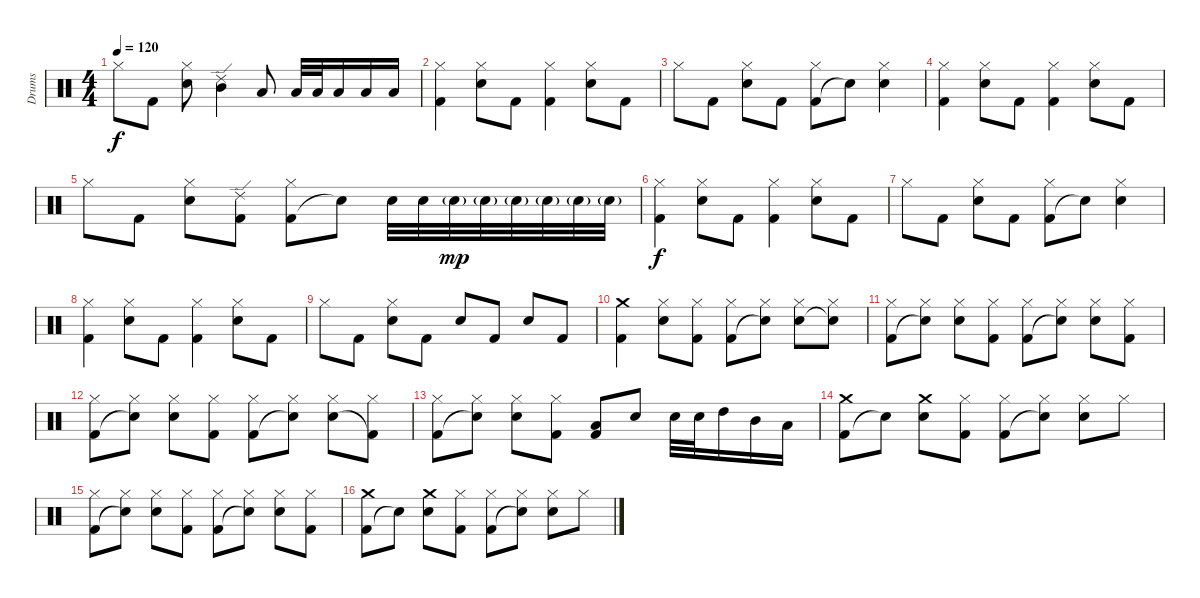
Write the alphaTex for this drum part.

\track ("Drums" "Drums") {instrument percussion}
\staff {score}
\articulation defaults
\ts (4 4)
\tempo 120
\clef neutral
\ks c "Hi-Hat (closed)".8{dy f} "Kick (hit) 2".8
("Snare (hit) 2" "Hi-Hat (closed)").8 ("Mid Tom (hit)" "Ride (edge) 2").4 "Low Tom (hit)".8 "Low Tom (hit)".32 "Low Tom (hit)".32 "Low Tom (hit)".16 "Low Floor Tom (hit)".16 "Low Floor Tom (hit)".16 |
("Kick (hit) 2" "Hi-Hat (closed)").4 ("Snare (hit) 2" "Hi-Hat (closed)").8 "Kick (hit) 2".8 ("Kick (hit) 2" "Hi-Hat (closed)").4 ("Snare (hit) 2" "Hi-Hat (closed)").8 "Kick (hit) 2".8 |
"Hi-Hat (closed)".8 "Kick (hit) 2".8 ("Snare (hit) 2" "Hi-Hat (closed)").8 "Kick (hit) 2".8 ("Kick (hit) 2" "Hi-Hat (closed)").8 "Snare (hit)"{t}.8 ("Snare (hit) 2" "Hi-Hat (closed)").4 |
("Kick (hit) 2" "Hi-Hat (closed)").4 ("Snare (hit) 2" "Hi-Hat (closed)").8 "Kick (hit) 2".8 ("Kick (hit) 2" "Hi-Hat (closed)").4 ("Snare (hit) 2" "Hi-Hat (closed)").8 "Kick (hit) 2".8 |
"Hi-Hat (closed)".8 "Kick (hit) 2".8 ("Snare (hit) 2" "Hi-Hat (closed)").8 ("Kick (hit) 2" "Ride (edge) 2").8 ("Kick (hit) 2" "Hi-Hat (closed)").8 "Snare (hit)"{t}.8 "Snare (hit) 2".32 "Snare (hit) 2".32 "Snare (hit) 2"{g}.32{dy mp} "Snare (hit) 2"{g}.32 "Snare (hit) 2"{g}.32 "Snare (hit) 2"{g}.32 "Snare (hit) 2"{g}.32 "Snare (hit) 2"{g}.32 |
("Kick (hit) 2" "Hi-Hat (closed)").4{dy f} ("Snare (hit) 2" "Hi-Hat (closed)").8 "Kick (hit) 2".8 ("Kick (hit) 2" "Hi-Hat (closed)").4 ("Snare (hit) 2" "Hi-Hat (closed)").8 "Kick (hit) 2".8 |
"Hi-Hat (closed)".8 "Kick (hit) 2".8 ("Snare (hit) 2" "Hi-Hat (closed)").8 "Kick (hit) 2".8 ("Kick (hit) 2" "Hi-Hat (closed)").8 "Snare (hit)"{t}.8 ("Snare (hit) 2" "Hi-Hat (closed)").4 |
("Kick (hit) 2" "Hi-Hat (closed)").4 ("Snare (hit) 2" "Hi-Hat (closed)").8 "Kick (hit) 2".8 ("Kick (hit) 2" "Hi-Hat (closed)").4 ("Snare (hit) 2" "Hi-Hat (closed)").8 "Kick (hit) 2".8 |
"Hi-Hat (closed)".8 "Kick (hit) 2".8 ("Snare (hit) 2" "Hi-Hat (closed)").8 "Kick (hit) 2".8 "Snare (hit) 2".8 "Kick (hit) 2".8 "Snare (hit) 2".8 "Kick (hit) 2".8 |
("Kick (hit) 2" "Crash medium (hit)").4 ("Snare (hit) 2" "Hi-Hat (closed)").8 ("Kick (hit) 2" "Hi-Hat (closed)").8 ("Kick (hit) 2" "Hi-Hat (closed)").8 ("Snare (hit)"{t} "Hi-Hat (closed)").8 ("Snare (hit) 2" "Hi-Hat (closed)").8 ("Snare (hit)"{t} "Hi-Hat (closed)").8 |
("Kick (hit) 2" "Hi-Hat (closed)").8 ("Snare (hit)"{t} "Hi-Hat (closed)").8 ("Snare (hit) 2" "Hi-Hat (closed)").8 ("Kick (hit) 2" "Hi-Hat (closed)").8 ("Kick (hit) 2" "Hi-Hat (closed)").8 ("Snare (hit)"{t} "Hi-Hat (closed)").8 ("Snare (hit) 2" "Hi-Hat (closed)").8 ("Kick (hit) 2" "Hi-Hat (closed)").8 |
("Kick (hit) 2" "Hi-Hat (closed)").8 ("Snare (hit)"{t} "Hi-Hat (closed)").8 ("Snare (hit) 2" "Hi-Hat (closed)").8 ("Kick (hit) 2" "Hi-Hat (closed)").8 ("Kick (hit) 2" "Hi-Hat (closed)").8 ("Snare (hit)"{t} "Hi-Hat (closed)").8 ("Snare (hit) 2" "Hi-Hat (closed)").8 ("Kick (hit) 2"{t} "Hi-Hat (closed)").8 |
("Kick (hit) 2" "Hi-Hat (closed)").8 ("Snare (hit)"{t} "Hi-Hat (closed)").8 ("Snare (hit) 2" "Hi-Hat (closed)").8 ("Kick (hit) 2" "Hi-Hat (closed)").8 ("Kick (hit) 2" "Low Floor Tom (hit)").8 "Snare (hit) 2".8 "Snare (hit) 2".32 "Snare (hit) 2".32 "High Tom (hit)".16 "Mid Tom (hit)".16 "Low Floor Tom (hit)".16 |
("Kick (hit) 2" "Crash medium (hit)").8 "Snare (hit)"{t}.8 ("Snare (hit) 2" "Crash medium (hit)").8 ("Kick (hit) 2" "Hi-Hat (closed)").8 ("Kick (hit) 2" "Hi-Hat (closed)").8 ("Snare (hit)"{t} "Hi-Hat (closed)").8 ("Snare (hit) 2" "Hi-Hat (closed)").8 "Hi-Hat (closed)".8 |
("Kick (hit) 2" "Hi-Hat (closed)").8 ("Snare (hit)"{t} "Hi-Hat (closed)").8 ("Snare (hit) 2" "Hi-Hat (closed)").8 ("Kick (hit) 2" "Hi-Hat (closed)").8 ("Kick (hit) 2" "Hi-Hat (closed)").8 ("Snare (hit)"{t} "Hi-Hat (closed)").8 ("Snare (hit) 2" "Hi-Hat (closed)").8 ("Kick (hit) 2" "Hi-Hat (closed)").8 |
("Kick (hit) 2" "Crash medium (hit)").8 "Snare (hit)"{t}.8 ("Snare (hit) 2" "Crash medium (hit)").8 ("Kick (hit) 2" "Hi-Hat (closed)").8 ("Kick (hit) 2" "Hi-Hat (closed)").8 ("Snare (hit)"{t} "Hi-Hat (closed)").8 ("Snare (hit) 2" "Hi-Hat (closed)").8 "Hi-Hat (closed)".8
